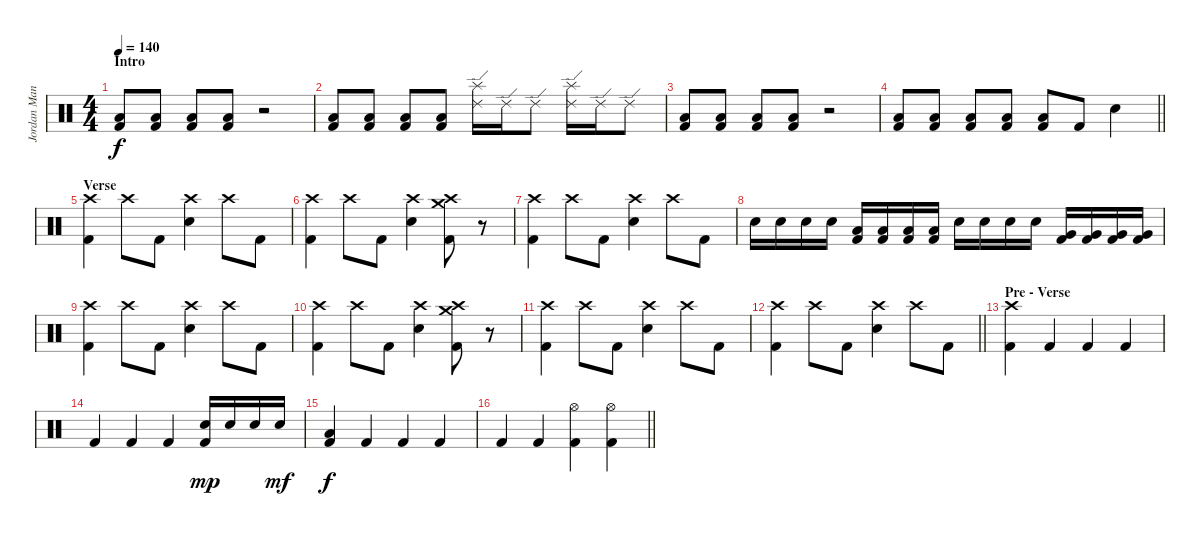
\track ("Jordan Mancino" "Jordan Man") {instrument percussion}
\staff {score}
\articulation defaults
\ts (4 4)
\section ("" "Intro")
\tempo 140
\clef neutral
\ks c
("Low Floor Tom (hit)" "Kick (hit) 2").8{dy f} ("Low Floor Tom (hit)" "Kick (hit) 2").8 ("Low Floor Tom (hit)" "Kick (hit) 2").8 ("Low Floor Tom (hit)" "Kick (hit) 2").8 r.2 |
("Low Floor Tom (hit)" "Kick (hit) 2").8 ("Low Floor Tom (hit)" "Kick (hit) 2").8 ("Low Floor Tom (hit)" "Kick (hit) 2").8 ("Low Floor Tom (hit)" "Kick (hit) 2").8 ("Ride (edge) 2" "Splash (hit)").16 "Ride (edge) 2".16 "Ride (edge) 2".8 ("Ride (edge) 2" "Splash (hit)").16 "Ride (edge) 2".16 "Ride (edge) 2".8 |
("Low Floor Tom (hit)" "Kick (hit) 2").8 ("Low Floor Tom (hit)" "Kick (hit) 2").8 ("Low Floor Tom (hit)" "Kick (hit) 2").8 ("Low Floor Tom (hit)" "Kick (hit) 2").8 r.2 |
\barLineRight lightlight
("Low Floor Tom (hit)" "Kick (hit) 2").8 ("Low Floor Tom (hit)" "Kick (hit) 2").8 ("Low Floor Tom (hit)" "Kick (hit) 2").8 ("Low Floor Tom (hit)" "Kick (hit) 2").8 ("Low Floor Tom (hit)" "Kick (hit) 2").8 "Kick (hit) 2".8 "Electric Snare (hit)".4 |
\section ("" "Verse")
("Crash high (hit)" "Kick (hit) 2").4 "Crash high (hit)".8 "Kick (hit) 2".8 ("Crash high (hit)" "Electric Snare (hit)").4 "Crash high (hit)".8 "Kick (hit) 2".8 |
("Crash high (hit)" "Kick (hit) 2").4 "Crash high (hit)".8 "Kick (hit) 2".8 ("Crash high (hit)" "Electric Snare (hit)").4 ("Crash high (hit)" "Crash medium (hit)" "Kick (hit) 2").8 r.8{volume 0} |
("Crash high (hit)" "Kick (hit) 2").4{volume 16} "Crash high (hit)".8 "Kick (hit) 2".8 ("Crash high (hit)" "Electric Snare (hit)").4 "Crash high (hit)".8 "Kick (hit) 2".8 |
"Electric Snare (hit)".16 "Electric Snare (hit)".16 "Electric Snare (hit)".16 "Electric Snare (hit)".16 ("Low Tom (hit)" "Kick (hit) 2").16 ("Low Tom (hit)" "Kick (hit) 2").16 ("Low Tom (hit)" "Kick (hit) 2").16 ("Low Tom (hit)" "Kick (hit) 2").16 "Electric Snare (hit)".16 "Electric Snare (hit)".16 "Electric Snare (hit)".16 "Electric Snare (hit)".16 ("Very Low Tom (hit)" "Kick (hit) 2").16 ("Very Low Tom (hit)" "Kick (hit) 2").16 ("Very Low Tom (hit)" "Kick (hit) 2").16 ("Very Low Tom (hit)" "Kick (hit) 2").16 |
("Crash high (hit)" "Kick (hit) 2").4 "Crash high (hit)".8 "Kick (hit) 2".8 ("Crash high (hit)" "Electric Snare (hit)").4 "Crash high (hit)".8 "Kick (hit) 2".8 |
("Crash high (hit)" "Kick (hit) 2").4 "Crash high (hit)".8 "Kick (hit) 2".8 ("Crash high (hit)" "Electric Snare (hit)").4 ("Crash high (hit)" "Crash medium (hit)" "Kick (hit) 2").8 r.8{volume 0} |
("Crash high (hit)" "Kick (hit) 2").4{volume 16} "Crash high (hit)".8 "Kick (hit) 2".8 ("Crash high (hit)" "Electric Snare (hit)").4 "Crash high (hit)".8 "Kick (hit) 2".8 |
\barLineRight lightlight
("Crash high (hit)" "Kick (hit) 2").4 "Crash high (hit)".8 "Kick (hit) 2".8 ("Crash high (hit)" "Electric Snare (hit)").4 "Crash high (hit)".8 "Kick (hit) 2".8 |
\section ("" "Pre - Verse")
("Crash high (hit)" "Kick (hit) 2").4 "Kick (hit) 2".4 "Kick (hit) 2".4 "Kick (hit) 2".4 |
"Kick (hit) 2".4 "Kick (hit) 2".4 "Kick (hit) 2".4 ("Electric Snare (hit)" "Kick (hit) 2").16{dy mp} "Electric Snare (hit)".16 "Electric Snare (hit)".16 "Electric Snare (hit)".16{dy mf} |
("Low Floor Tom (hit)" "Kick (hit) 2").4{dy f} "Kick (hit) 2".4 "Kick (hit) 2".4 "Kick (hit) 2".4 |
\barLineRight lightlight "Kick (hit) 2".4 "Kick (hit) 2".4
("Hi-Hat (open)" "Kick (hit) 2").4 ("Hi-Hat (open)" "Kick (hit) 2").4
